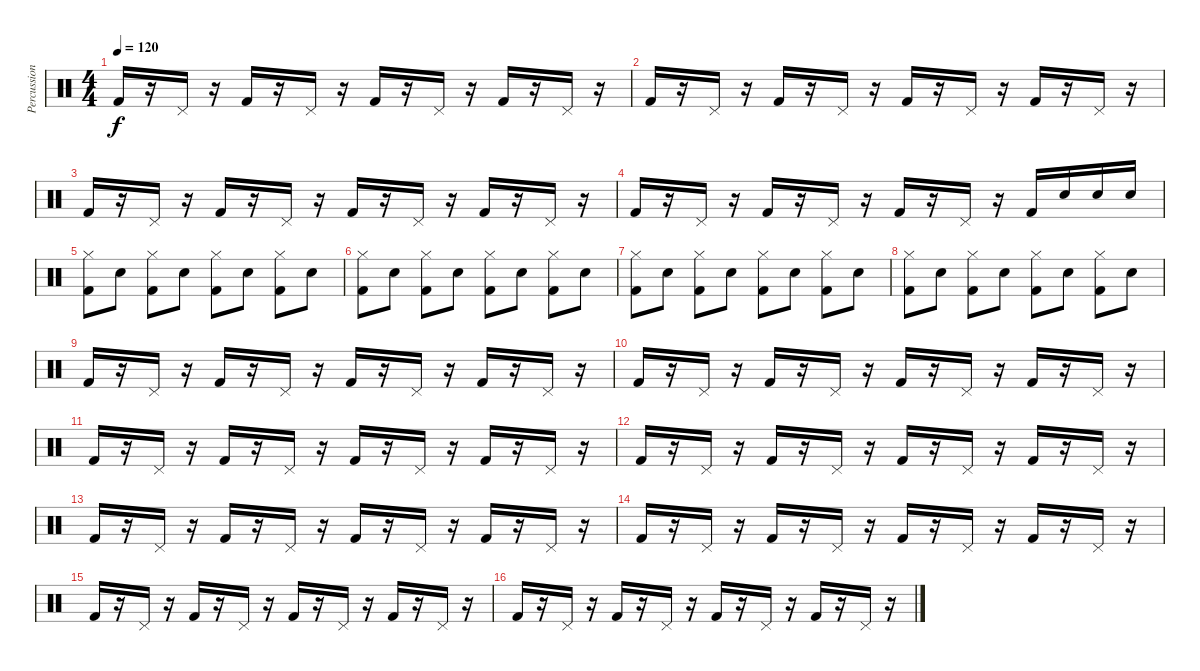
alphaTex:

\track ("Percussion" "Percussion") {instrument percussion}
\staff {score}
\articulation defaults
\ts (4 4)
\tempo 120
\clef neutral
\ks c "Kick (hit) 2".16{dy f}
r.16 "Pedal Hi-Hat (hit)".16 r.16 "Kick (hit) 2".16 r.16 "Pedal Hi-Hat (hit)".16 r.16 "Kick (hit) 2".16 r.16 "Pedal Hi-Hat (hit)".16 r.16 "Kick (hit) 2".16 r.16 "Pedal Hi-Hat (hit)".16 r.16 |
"Kick (hit) 2".16 r.16 "Pedal Hi-Hat (hit)".16 r.16 "Kick (hit) 2".16 r.16 "Pedal Hi-Hat (hit)".16 r.16 "Kick (hit) 2".16 r.16 "Pedal Hi-Hat (hit)".16 r.16 "Kick (hit) 2".16 r.16 "Pedal Hi-Hat (hit)".16 r.16 |
"Kick (hit) 2".16 r.16 "Pedal Hi-Hat (hit)".16 r.16 "Kick (hit) 2".16 r.16 "Pedal Hi-Hat (hit)".16 r.16 "Kick (hit) 2".16 r.16 "Pedal Hi-Hat (hit)".16 r.16 "Kick (hit) 2".16 r.16 "Pedal Hi-Hat (hit)".16 r.16 |
"Kick (hit) 2".16 r.16 "Pedal Hi-Hat (hit)".16 r.16 "Kick (hit) 2".16 r.16 "Pedal Hi-Hat (hit)".16 r.16 "Kick (hit) 2".16 r.16 "Pedal Hi-Hat (hit)".16 r.16 "Kick (hit) 2".16 "Electric Snare (hit)".16 "Electric Snare (hit)".16 "Electric Snare (hit)".16 |
("Hi-Hat (closed)" "Kick (hit) 2").8 "Electric Snare (hit)".8 ("Hi-Hat (closed)" "Kick (hit) 2").8 "Electric Snare (hit)".8 ("Hi-Hat (closed)" "Kick (hit) 2").8 "Electric Snare (hit)".8 ("Hi-Hat (closed)" "Kick (hit) 2").8 "Electric Snare (hit)".8 |
("Hi-Hat (closed)" "Kick (hit) 2").8 "Electric Snare (hit)".8 ("Hi-Hat (closed)" "Kick (hit) 2").8 "Electric Snare (hit)".8 ("Hi-Hat (closed)" "Kick (hit) 2").8 "Electric Snare (hit)".8 ("Hi-Hat (closed)" "Kick (hit) 2").8 "Electric Snare (hit)".8 |
("Hi-Hat (closed)" "Kick (hit) 2").8 "Electric Snare (hit)".8 ("Hi-Hat (closed)" "Kick (hit) 2").8 "Electric Snare (hit)".8 ("Hi-Hat (closed)" "Kick (hit) 2").8 "Electric Snare (hit)".8 ("Hi-Hat (closed)" "Kick (hit) 2").8 "Electric Snare (hit)".8 |
("Hi-Hat (closed)" "Kick (hit) 2").8 "Electric Snare (hit)".8 ("Hi-Hat (closed)" "Kick (hit) 2").8 "Electric Snare (hit)".8 ("Hi-Hat (closed)" "Kick (hit) 2").8 "Electric Snare (hit)".8 ("Hi-Hat (closed)" "Kick (hit) 2").8 "Electric Snare (hit)".8 |
"Kick (hit) 2".16 r.16 "Pedal Hi-Hat (hit)".16 r.16 "Kick (hit) 2".16 r.16 "Pedal Hi-Hat (hit)".16 r.16 "Kick (hit) 2".16 r.16 "Pedal Hi-Hat (hit)".16 r.16 "Kick (hit) 2".16 r.16 "Pedal Hi-Hat (hit)".16 r.16 |
"Kick (hit) 2".16 r.16 "Pedal Hi-Hat (hit)".16 r.16 "Kick (hit) 2".16 r.16 "Pedal Hi-Hat (hit)".16 r.16 "Kick (hit) 2".16 r.16 "Pedal Hi-Hat (hit)".16 r.16 "Kick (hit) 2".16 r.16 "Pedal Hi-Hat (hit)".16 r.16 |
"Kick (hit) 2".16 r.16 "Pedal Hi-Hat (hit)".16 r.16 "Kick (hit) 2".16 r.16 "Pedal Hi-Hat (hit)".16 r.16 "Kick (hit) 2".16 r.16 "Pedal Hi-Hat (hit)".16 r.16 "Kick (hit) 2".16 r.16 "Pedal Hi-Hat (hit)".16 r.16 |
"Kick (hit) 2".16 r.16 "Pedal Hi-Hat (hit)".16 r.16 "Kick (hit) 2".16 r.16 "Pedal Hi-Hat (hit)".16 r.16 "Kick (hit) 2".16 r.16 "Pedal Hi-Hat (hit)".16 r.16 "Kick (hit) 2".16 r.16 "Pedal Hi-Hat (hit)".16 r.16 |
"Kick (hit) 2".16 r.16 "Pedal Hi-Hat (hit)".16 r.16 "Kick (hit) 2".16 r.16 "Pedal Hi-Hat (hit)".16 r.16 "Kick (hit) 2".16 r.16 "Pedal Hi-Hat (hit)".16 r.16 "Kick (hit) 2".16 r.16 "Pedal Hi-Hat (hit)".16 r.16 |
"Kick (hit) 2".16 r.16 "Pedal Hi-Hat (hit)".16 r.16 "Kick (hit) 2".16 r.16 "Pedal Hi-Hat (hit)".16 r.16 "Kick (hit) 2".16 r.16 "Pedal Hi-Hat (hit)".16 r.16 "Kick (hit) 2".16 r.16 "Pedal Hi-Hat (hit)".16 r.16 |
"Kick (hit) 2".16 r.16 "Pedal Hi-Hat (hit)".16 r.16 "Kick (hit) 2".16 r.16 "Pedal Hi-Hat (hit)".16 r.16 "Kick (hit) 2".16 r.16 "Pedal Hi-Hat (hit)".16 r.16 "Kick (hit) 2".16 r.16 "Pedal Hi-Hat (hit)".16 r.16 |
"Kick (hit) 2".16 r.16 "Pedal Hi-Hat (hit)".16 r.16 "Kick (hit) 2".16 r.16 "Pedal Hi-Hat (hit)".16 r.16 "Kick (hit) 2".16 r.16 "Pedal Hi-Hat (hit)".16 r.16 "Kick (hit) 2".16 r.16 "Pedal Hi-Hat (hit)".16 r.16
